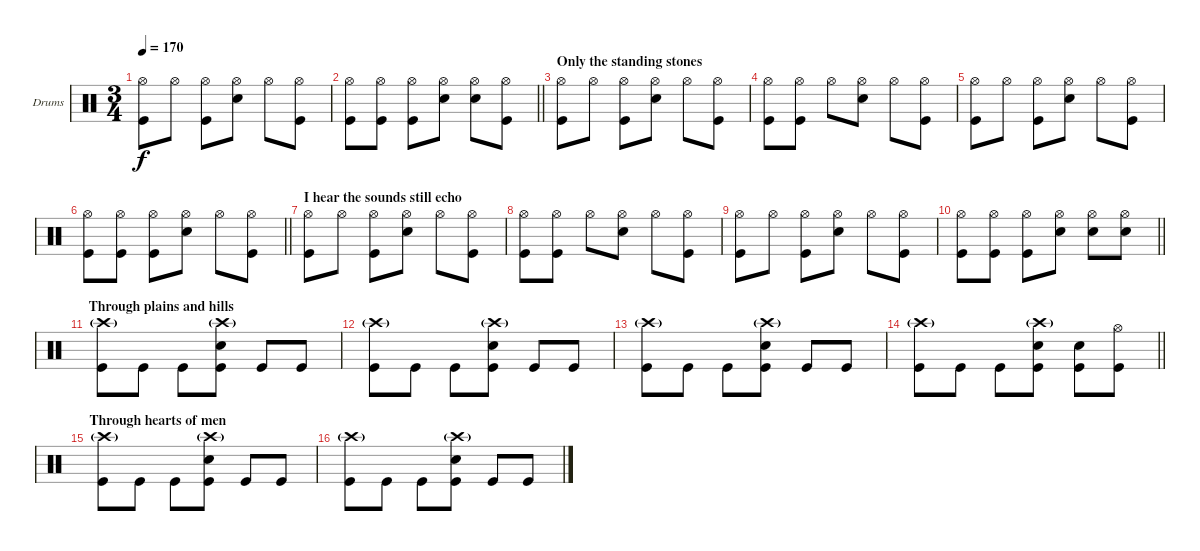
\bracketExtendMode groupsimilarinstruments
\firstSystemTrackNameOrientation horizontal
\otherSystemsTrackNameOrientation horizontal
\track ("Drumkit" "Drums") {instrument percussion}
\staff {score}
\articulation defaults
\ts (3 4)
\tempo 170
\clef neutral
\ks c
("Hi-Hat (open)" "Kick (hit)").8{dy f} "Hi-Hat (open)".8 ("Hi-Hat (open)" "Kick (hit)").8 ("Hi-Hat (open)" "Snare (hit) 2").8 "Hi-Hat (open)".8 ("Hi-Hat (open)" "Kick (hit)").8 |
\barLineRight lightlight
("Hi-Hat (open)" "Kick (hit)").8 ("Hi-Hat (open)" "Kick (hit)").8 ("Hi-Hat (open)" "Kick (hit)").8 ("Hi-Hat (open)" "Snare (hit) 2").8 ("Hi-Hat (open)" "Snare (hit) 2").8 ("Hi-Hat (open)" "Kick (hit)").8 |
\section ("" "Only the standing stones")
("Hi-Hat (open)" "Kick (hit)").8 "Hi-Hat (open)".8 ("Hi-Hat (open)" "Kick (hit)").8 ("Hi-Hat (open)" "Snare (hit) 2").8 "Hi-Hat (open)".8 ("Hi-Hat (open)" "Kick (hit)").8 |
("Hi-Hat (open)" "Kick (hit)").8 ("Hi-Hat (open)" "Kick (hit)").8 "Hi-Hat (open)".8 ("Hi-Hat (open)" "Snare (hit) 2").8 "Hi-Hat (open)".8 ("Hi-Hat (open)" "Kick (hit)").8 |
("Hi-Hat (open)" "Kick (hit)").8 "Hi-Hat (open)".8 ("Hi-Hat (open)" "Kick (hit)").8 ("Hi-Hat (open)" "Snare (hit) 2").8 "Hi-Hat (open)".8 ("Hi-Hat (open)" "Kick (hit)").8 |
\barLineRight lightlight
("Hi-Hat (open)" "Kick (hit)").8 ("Hi-Hat (open)" "Kick (hit)").8 ("Hi-Hat (open)" "Kick (hit)").8 ("Hi-Hat (open)" "Snare (hit) 2").8 "Hi-Hat (open)".8 ("Hi-Hat (open)" "Kick (hit)").8 |
\section ("" "I hear the sounds still echo")
("Hi-Hat (open)" "Kick (hit)").8 "Hi-Hat (open)".8 ("Hi-Hat (open)" "Kick (hit)").8 ("Hi-Hat (open)" "Snare (hit) 2").8 "Hi-Hat (open)".8 ("Hi-Hat (open)" "Kick (hit)").8 |
("Hi-Hat (open)" "Kick (hit)").8 ("Hi-Hat (open)" "Kick (hit)").8 "Hi-Hat (open)".8 ("Hi-Hat (open)" "Snare (hit) 2").8 "Hi-Hat (open)".8 ("Hi-Hat (open)" "Kick (hit)").8 |
("Hi-Hat (open)" "Kick (hit)").8 "Hi-Hat (open)".8 ("Hi-Hat (open)" "Kick (hit)").8 ("Hi-Hat (open)" "Snare (hit) 2").8 "Hi-Hat (open)".8 ("Hi-Hat (open)" "Kick (hit)").8 |
\barLineRight lightlight
("Hi-Hat (open)" "Kick (hit)").8 ("Hi-Hat (open)" "Kick (hit)").8 ("Hi-Hat (open)" "Kick (hit)").8 ("Hi-Hat (open)" "Snare (hit) 2").8 ("Hi-Hat (open)" "Snare (hit) 2").8 ("Hi-Hat (open)" "Snare (hit) 2").8 |
\section ("" "Through plains and hills")
("Crash high (hit)"{g} "Kick (hit)").8 "Kick (hit)".8 "Kick (hit)".8 ("Crash high (hit)"{g} "Snare (hit) 2" "Kick (hit)").8 "Kick (hit)".8 "Kick (hit)".8 |
("Crash high (hit)"{g} "Kick (hit)").8 "Kick (hit)".8 "Kick (hit)".8 ("Crash high (hit)"{g} "Snare (hit) 2" "Kick (hit)").8 "Kick (hit)".8 "Kick (hit)".8 |
("Crash high (hit)"{g} "Kick (hit)").8 "Kick (hit)".8 "Kick (hit)".8 ("Crash high (hit)"{g} "Snare (hit) 2" "Kick (hit)").8 "Kick (hit)".8 "Kick (hit)".8 |
\barLineRight lightlight
("Crash high (hit)"{g} "Kick (hit)").8 "Kick (hit)".8 "Kick (hit)".8 ("Crash high (hit)"{g} "Snare (hit) 2" "Kick (hit)").8 ("Snare (hit) 2" "Kick (hit)").8 ("Hi-Hat (open)" "Kick (hit)").8 |
\section ("" "Through hearts of men")
("Crash high (hit)"{g} "Kick (hit)").8 "Kick (hit)".8 "Kick (hit)".8 ("Crash high (hit)"{g} "Snare (hit) 2" "Kick (hit)").8 "Kick (hit)".8 "Kick (hit)".8 |
("Crash high (hit)"{g} "Kick (hit)").8 "Kick (hit)".8 "Kick (hit)".8 ("Crash high (hit)"{g} "Snare (hit) 2" "Kick (hit)").8 "Kick (hit)".8 "Kick (hit)".8
